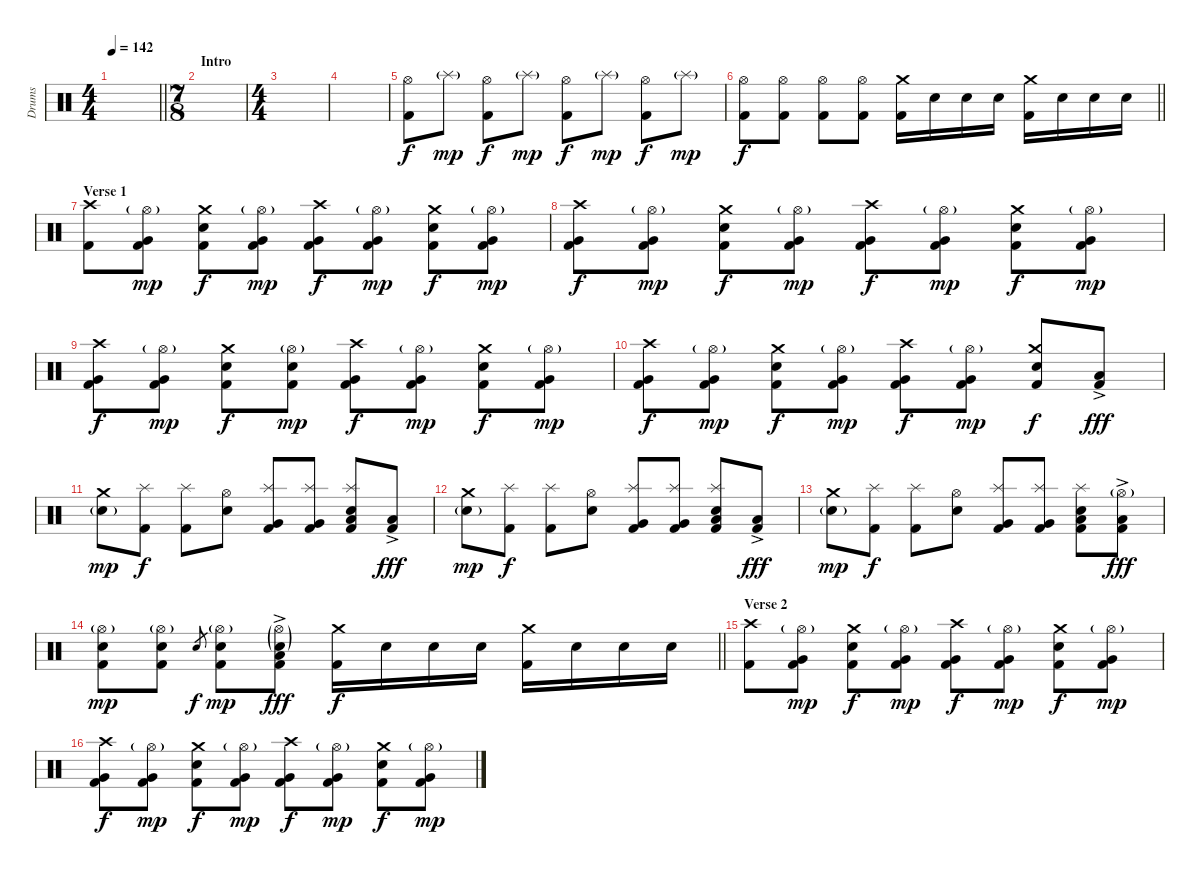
\track ("Drums" "Drums") {instrument percussion}
\staff {score}
\articulation defaults
\ts (4 4)
\tempo 142
\clef neutral
\barLineRight lightlight
\ks c
|
\ts (7 8)
\section ("" "Intro")
|
\ts (4 4)
|
|
("Hi-Hat (open)" "Kick (hit) 2").8 "Splash (hit)"{g}.8{dy mp} ("Hi-Hat (open)" "Kick (hit) 2").8{dy f} "Splash (hit)"{g}.8{dy mp} ("Hi-Hat (open)" "Kick (hit) 2").8{dy f} "Splash (hit)"{g}.8{dy mp} ("Hi-Hat (open)" "Kick (hit) 2").8{dy f} "Splash (hit)"{g}.8{dy mp} |
\barLineRight lightlight
("Hi-Hat (open)" "Kick (hit) 2").8{dy f} ("Hi-Hat (open)" "Kick (hit) 2").8 ("Hi-Hat (open)" "Kick (hit) 2").8 ("Hi-Hat (open)" "Kick (hit) 2").8 ("Crash medium (hit)" "Kick (hit) 2").16 "Electric Snare (hit)".16 "Electric Snare (hit)".16 "Electric Snare (hit)".16 ("Crash medium (hit)" "Kick (hit) 2").16 "Electric Snare (hit)".16 "Electric Snare (hit)".16 "Electric Snare (hit)".16 |
\section ("" "Verse 1")
("Crash high (hit)" "Kick (hit) 2").8 ("Hi-Hat (open)"{g} "Very Low Tom (hit)" "Kick (hit) 2").8{dy mp} ("Crash medium (hit)" "Electric Snare (hit)" "Kick (hit) 2").8{dy f} ("Hi-Hat (open)"{g} "Very Low Tom (hit)" "Kick (hit) 2").8{dy mp} ("Crash high (hit)" "Very Low Tom (hit)" "Kick (hit) 2").8{dy f} ("Hi-Hat (open)"{g} "Very Low Tom (hit)" "Kick (hit) 2").8{dy mp} ("Crash medium (hit)" "Electric Snare (hit)" "Kick (hit) 2").8{dy f} ("Hi-Hat (open)"{g} "Very Low Tom (hit)" "Kick (hit) 2").8{dy mp} |
("Crash high (hit)" "Very Low Tom (hit)" "Kick (hit) 2").8{dy f} ("Hi-Hat (open)"{g} "Very Low Tom (hit)" "Kick (hit) 2").8{dy mp} ("Crash medium (hit)" "Electric Snare (hit)" "Kick (hit) 2").8{dy f} ("Hi-Hat (open)"{g} "Very Low Tom (hit)" "Kick (hit) 2").8{dy mp} ("Crash high (hit)" "Very Low Tom (hit)" "Kick (hit) 2").8{dy f} ("Hi-Hat (open)"{g} "Very Low Tom (hit)" "Kick (hit) 2").8{dy mp} ("Crash medium (hit)" "Electric Snare (hit)" "Kick (hit) 2").8{dy f} ("Hi-Hat (open)"{g} "Very Low Tom (hit)" "Kick (hit) 2").8{dy mp} |
("Crash high (hit)" "Very Low Tom (hit)" "Kick (hit) 2").8{dy f} ("Hi-Hat (open)"{g} "Very Low Tom (hit)" "Kick (hit) 2").8{dy mp} ("Crash medium (hit)" "Electric Snare (hit)" "Kick (hit) 2").8{dy f} ("Hi-Hat (open)"{g} "Electric Snare (hit)" "Kick (hit) 2").8{dy mp} ("Crash high (hit)" "Very Low Tom (hit)" "Kick (hit) 2").8{dy f} ("Hi-Hat (open)"{g} "Very Low Tom (hit)" "Kick (hit) 2").8{dy mp} ("Crash medium (hit)" "Electric Snare (hit)" "Kick (hit) 2").8{dy f} ("Hi-Hat (open)"{g} "Very Low Tom (hit)" "Kick (hit) 2").8{dy mp} |
("Crash high (hit)" "Very Low Tom (hit)" "Kick (hit) 2").8{dy f} ("Hi-Hat (open)"{g} "Very Low Tom (hit)" "Kick (hit) 2").8{dy mp} ("Crash medium (hit)" "Electric Snare (hit)" "Kick (hit) 2").8{dy f} ("Hi-Hat (open)"{g} "Very Low Tom (hit)" "Kick (hit) 2").8{dy mp} ("Crash high (hit)" "Very Low Tom (hit)" "Kick (hit) 2").8{dy f} ("Hi-Hat (open)"{g} "Very Low Tom (hit)" "Kick (hit) 2").8{dy mp} ("Crash medium (hit)" "Electric Snare (hit)" "Kick (hit) 2").8{dy f} ("Low Floor Tom (hit)"{ac} "Kick (hit) 2").8{dy fff} |
("Crash medium (hit)" "Electric Snare (hit)"{g}).8{dy mp} ("Splash (hit)" "Kick (hit) 2").8{dy f} ("Splash (hit)" "Kick (hit) 2").8 ("Hi-Hat (open)" "Electric Snare (hit)").8 ("Splash (hit)" "Very Low Tom (hit)" "Kick (hit) 2").8 ("Splash (hit)" "Very Low Tom (hit)" "Kick (hit) 2").8 ("Splash (hit)" "Electric Snare (hit)" "Low Tom (hit)" "Kick (hit) 2").8 ("Low Floor Tom (hit)"{ac} "Kick (hit) 2").8{dy fff} |
("Crash medium (hit)" "Electric Snare (hit)"{g}).8{dy mp} ("Splash (hit)" "Kick (hit) 2").8{dy f} ("Splash (hit)" "Kick (hit) 2").8 ("Hi-Hat (open)" "Electric Snare (hit)").8 ("Splash (hit)" "Very Low Tom (hit)" "Kick (hit) 2").8 ("Splash (hit)" "Very Low Tom (hit)" "Kick (hit) 2").8 ("Splash (hit)" "Electric Snare (hit)" "Low Tom (hit)" "Kick (hit) 2").8 ("Low Floor Tom (hit)"{ac} "Kick (hit) 2").8{dy fff} |
("Crash medium (hit)" "Electric Snare (hit)"{g}).8{dy mp} ("Splash (hit)" "Kick (hit) 2").8{dy f} ("Splash (hit)" "Kick (hit) 2").8 ("Hi-Hat (open)" "Electric Snare (hit)").8 ("Splash (hit)" "Very Low Tom (hit)" "Kick (hit) 2").8 ("Splash (hit)" "Very Low Tom (hit)" "Kick (hit) 2").8 ("Splash (hit)" "Electric Snare (hit)" "Low Tom (hit)" "Kick (hit) 2").8 ("Hi-Hat (open)"{g} "Low Floor Tom (hit)"{ac} "Kick (hit) 2").8{dy fff} |
\barLineRight lightlight
("Hi-Hat (open)"{g} "Electric Snare (hit)" "Kick (hit) 2").8{dy mp} ("Hi-Hat (open)"{g} "Electric Snare (hit)" "Kick (hit) 2").8 "Electric Snare (hit)".8{gr dy f} ("Hi-Hat (open)"{g} "Electric Snare (hit)" "Kick (hit) 2").8{dy mp} ("Hi-Hat (open)"{g} "Electric Snare (hit)"{g} "Low Floor Tom (hit)"{ac} "Kick (hit) 2"{ac}).8{dy fff} ("Crash medium (hit)" "Kick (hit) 2").16{dy f} "Electric Snare (hit)".16 "Electric Snare (hit)".16 "Electric Snare (hit)".16 ("Crash medium (hit)" "Kick (hit) 2").16 "Electric Snare (hit)".16 "Electric Snare (hit)".16 "Electric Snare (hit)".16 |
\section ("" "Verse 2")
("Crash high (hit)" "Kick (hit) 2").8 ("Hi-Hat (open)"{g} "Very Low Tom (hit)" "Kick (hit) 2").8{dy mp} ("Crash medium (hit)" "Electric Snare (hit)" "Kick (hit) 2").8{dy f} ("Hi-Hat (open)"{g} "Very Low Tom (hit)" "Kick (hit) 2").8{dy mp} ("Crash high (hit)" "Very Low Tom (hit)" "Kick (hit) 2").8{dy f} ("Hi-Hat (open)"{g} "Very Low Tom (hit)" "Kick (hit) 2").8{dy mp} ("Crash medium (hit)" "Electric Snare (hit)" "Kick (hit) 2").8{dy f} ("Hi-Hat (open)"{g} "Very Low Tom (hit)" "Kick (hit) 2").8{dy mp} |
("Crash high (hit)" "Very Low Tom (hit)" "Kick (hit) 2").8{dy f} ("Hi-Hat (open)"{g} "Very Low Tom (hit)" "Kick (hit) 2").8{dy mp} ("Crash medium (hit)" "Electric Snare (hit)" "Kick (hit) 2").8{dy f} ("Hi-Hat (open)"{g} "Very Low Tom (hit)" "Kick (hit) 2").8{dy mp} ("Crash high (hit)" "Very Low Tom (hit)" "Kick (hit) 2").8{dy f} ("Hi-Hat (open)"{g} "Very Low Tom (hit)" "Kick (hit) 2").8{dy mp} ("Crash medium (hit)" "Electric Snare (hit)" "Kick (hit) 2").8{dy f} ("Hi-Hat (open)"{g} "Very Low Tom (hit)" "Kick (hit) 2").8{dy mp}
